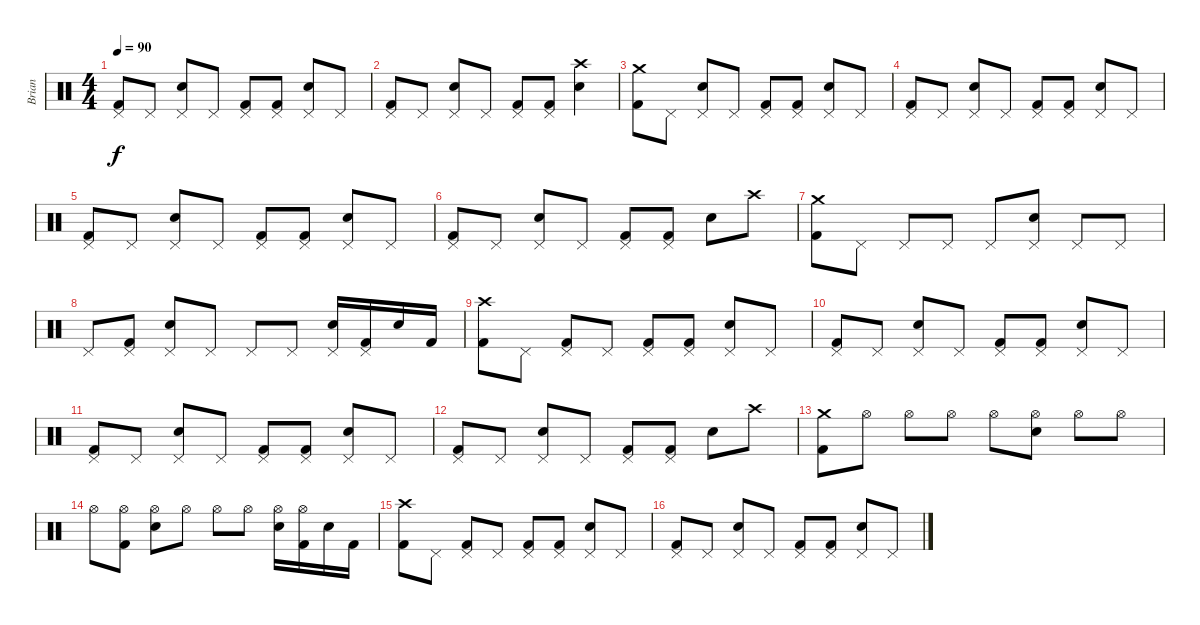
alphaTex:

\track ("Brian" "Brian") {instrument percussion}
\staff {score}
\articulation defaults
\ts (4 4)
\tempo 90
\clef neutral
\ks c
("Pedal Hi-Hat (hit)" "Kick (hit) 2").8{dy f} "Pedal Hi-Hat (hit)".8 ("Pedal Hi-Hat (hit)" "Electric Snare (hit)").8 "Pedal Hi-Hat (hit)".8 ("Pedal Hi-Hat (hit)" "Kick (hit) 2").8 ("Pedal Hi-Hat (hit)" "Kick (hit) 2").8 ("Pedal Hi-Hat (hit)" "Electric Snare (hit)").8 "Pedal Hi-Hat (hit)".8 |
("Pedal Hi-Hat (hit)" "Kick (hit) 2").8 "Pedal Hi-Hat (hit)".8 ("Pedal Hi-Hat (hit)" "Electric Snare (hit)").8 "Pedal Hi-Hat (hit)".8 ("Pedal Hi-Hat (hit)" "Kick (hit) 2").8 ("Pedal Hi-Hat (hit)" "Kick (hit) 2").8 ("Crash high (hit)" "Electric Snare (hit)").4 |
("Crash medium (hit)" "Kick (hit) 2").8 "Pedal Hi-Hat (hit)".8 ("Pedal Hi-Hat (hit)" "Electric Snare (hit)").8 "Pedal Hi-Hat (hit)".8 ("Pedal Hi-Hat (hit)" "Kick (hit) 2").8 ("Pedal Hi-Hat (hit)" "Kick (hit) 2").8 ("Pedal Hi-Hat (hit)" "Electric Snare (hit)").8 "Pedal Hi-Hat (hit)".8 |
("Pedal Hi-Hat (hit)" "Kick (hit) 2").8 "Pedal Hi-Hat (hit)".8 ("Pedal Hi-Hat (hit)" "Electric Snare (hit)").8 "Pedal Hi-Hat (hit)".8 ("Pedal Hi-Hat (hit)" "Kick (hit) 2").8 ("Pedal Hi-Hat (hit)" "Kick (hit) 2").8 ("Pedal Hi-Hat (hit)" "Electric Snare (hit)").8 "Pedal Hi-Hat (hit)".8 |
("Pedal Hi-Hat (hit)" "Kick (hit) 2").8 "Pedal Hi-Hat (hit)".8 ("Pedal Hi-Hat (hit)" "Electric Snare (hit)").8 "Pedal Hi-Hat (hit)".8 ("Pedal Hi-Hat (hit)" "Kick (hit) 2").8 ("Pedal Hi-Hat (hit)" "Kick (hit) 2").8 ("Pedal Hi-Hat (hit)" "Electric Snare (hit)").8 "Pedal Hi-Hat (hit)".8 |
("Pedal Hi-Hat (hit)" "Kick (hit) 2").8 "Pedal Hi-Hat (hit)".8 ("Pedal Hi-Hat (hit)" "Electric Snare (hit)").8 "Pedal Hi-Hat (hit)".8 ("Pedal Hi-Hat (hit)" "Kick (hit) 2").8 ("Pedal Hi-Hat (hit)" "Kick (hit) 2").8 "Electric Snare (hit)".8 "Crash high (hit)".8 |
("Crash medium (hit)" "Kick (hit) 2").8 "Pedal Hi-Hat (hit)".8 "Pedal Hi-Hat (hit)".8 "Pedal Hi-Hat (hit)".8 "Pedal Hi-Hat (hit)".8 ("Pedal Hi-Hat (hit)" "Electric Snare (hit)").8 "Pedal Hi-Hat (hit)".8 "Pedal Hi-Hat (hit)".8 |
"Pedal Hi-Hat (hit)".8 ("Pedal Hi-Hat (hit)" "Kick (hit) 2").8 ("Pedal Hi-Hat (hit)" "Electric Snare (hit)").8 "Pedal Hi-Hat (hit)".8 "Pedal Hi-Hat (hit)".8 "Pedal Hi-Hat (hit)".8 ("Pedal Hi-Hat (hit)" "Electric Snare (hit)").16 ("Pedal Hi-Hat (hit)" "Kick (hit) 2").16 "Electric Snare (hit)".16 "Kick (hit) 2".16 |
("Crash high (hit)" "Kick (hit) 2").8 "Pedal Hi-Hat (hit)".8 ("Pedal Hi-Hat (hit)" "Kick (hit) 2").8 "Pedal Hi-Hat (hit)".8 ("Pedal Hi-Hat (hit)" "Kick (hit) 2").8 ("Pedal Hi-Hat (hit)" "Kick (hit) 2").8 ("Pedal Hi-Hat (hit)" "Electric Snare (hit)").8 "Pedal Hi-Hat (hit)".8 |
("Pedal Hi-Hat (hit)" "Kick (hit) 2").8 "Pedal Hi-Hat (hit)".8 ("Pedal Hi-Hat (hit)" "Electric Snare (hit)").8 "Pedal Hi-Hat (hit)".8 ("Pedal Hi-Hat (hit)" "Kick (hit) 2").8 ("Pedal Hi-Hat (hit)" "Kick (hit) 2").8 ("Pedal Hi-Hat (hit)" "Electric Snare (hit)").8 "Pedal Hi-Hat (hit)".8 |
("Pedal Hi-Hat (hit)" "Kick (hit) 2").8 "Pedal Hi-Hat (hit)".8 ("Pedal Hi-Hat (hit)" "Electric Snare (hit)").8 "Pedal Hi-Hat (hit)".8 ("Pedal Hi-Hat (hit)" "Kick (hit) 2").8 ("Pedal Hi-Hat (hit)" "Kick (hit) 2").8 ("Pedal Hi-Hat (hit)" "Electric Snare (hit)").8 "Pedal Hi-Hat (hit)".8 |
("Pedal Hi-Hat (hit)" "Kick (hit) 2").8 "Pedal Hi-Hat (hit)".8 ("Pedal Hi-Hat (hit)" "Electric Snare (hit)").8 "Pedal Hi-Hat (hit)".8 ("Pedal Hi-Hat (hit)" "Kick (hit) 2").8 ("Pedal Hi-Hat (hit)" "Kick (hit) 2").8 "Electric Snare (hit)".8 "Crash high (hit)".8 |
("Crash medium (hit)" "Kick (hit) 2").8 "Hi-Hat (open)".8 "Hi-Hat (open)".8 "Hi-Hat (open)".8 "Hi-Hat (open)".8 ("Hi-Hat (open)" "Electric Snare (hit)").8 "Hi-Hat (open)".8 "Hi-Hat (open)".8 |
"Hi-Hat (open)".8 ("Hi-Hat (open)" "Kick (hit) 2").8 ("Hi-Hat (open)" "Electric Snare (hit)").8 "Hi-Hat (open)".8 "Hi-Hat (open)".8 "Hi-Hat (open)".8 ("Hi-Hat (open)" "Electric Snare (hit)").16 ("Hi-Hat (open)" "Kick (hit) 2").16 "Electric Snare (hit)".16 "Kick (hit) 2".16 |
("Crash high (hit)" "Kick (hit) 2").8 "Pedal Hi-Hat (hit)".8 ("Pedal Hi-Hat (hit)" "Kick (hit) 2").8 "Pedal Hi-Hat (hit)".8 ("Pedal Hi-Hat (hit)" "Kick (hit) 2").8 ("Pedal Hi-Hat (hit)" "Kick (hit) 2").8 ("Pedal Hi-Hat (hit)" "Electric Snare (hit)").8 "Pedal Hi-Hat (hit)".8 |
("Pedal Hi-Hat (hit)" "Kick (hit) 2").8 "Pedal Hi-Hat (hit)".8 ("Pedal Hi-Hat (hit)" "Electric Snare (hit)").8 "Pedal Hi-Hat (hit)".8 ("Pedal Hi-Hat (hit)" "Kick (hit) 2").8 ("Pedal Hi-Hat (hit)" "Kick (hit) 2").8 ("Pedal Hi-Hat (hit)" "Electric Snare (hit)").8 "Pedal Hi-Hat (hit)".8
